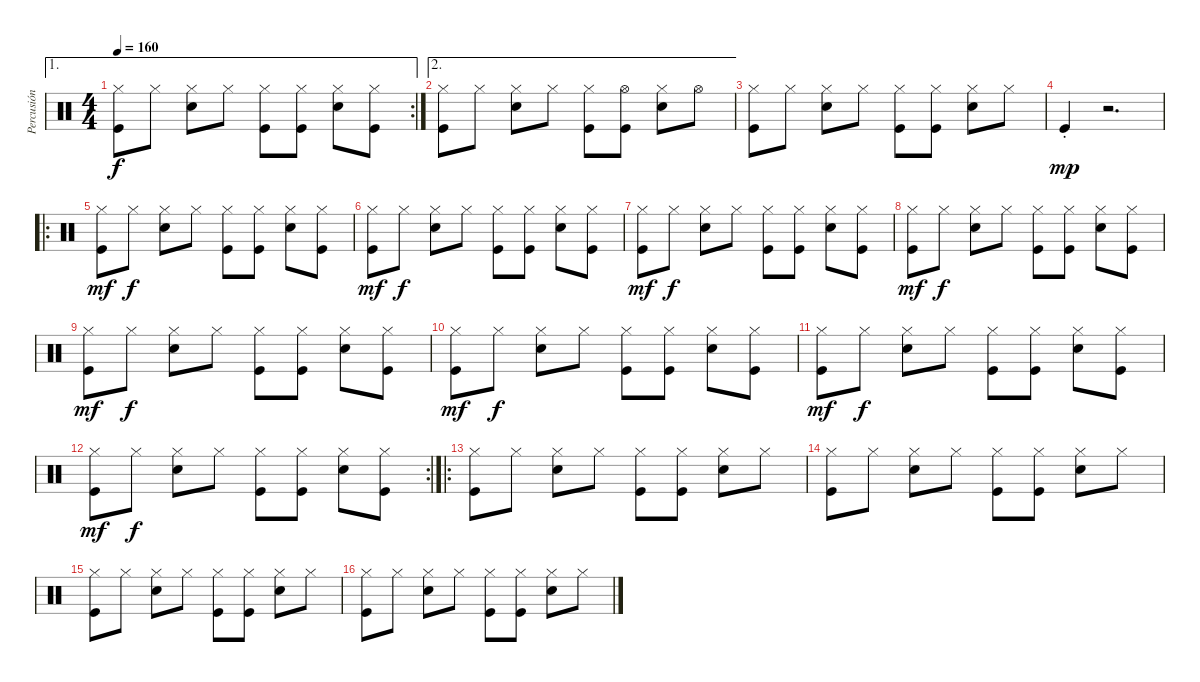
\track ("Percusión" "Percusión") {instrument percussion}
\staff {score}
\articulation defaults
\ae 1
\rc 2
\ts (4 4)
\tempo 160
\clef neutral
\ks c
("Hi-Hat (closed)" "Kick (hit)").8{dy f} "Hi-Hat (closed)".8 ("Hi-Hat (closed)" "Electric Snare (hit)").8 "Hi-Hat (closed)".8 ("Hi-Hat (closed)" "Kick (hit)").8 ("Hi-Hat (closed)" "Kick (hit)").8 ("Hi-Hat (closed)" "Electric Snare (hit)").8 ("Hi-Hat (closed)" "Kick (hit)").8 |
\ae 2
("Hi-Hat (closed)" "Kick (hit)").8 "Hi-Hat (closed)".8 ("Hi-Hat (closed)" "Electric Snare (hit)").8 "Hi-Hat (closed)".8 ("Hi-Hat (closed)" "Kick (hit)").8 ("Hi-Hat (open)" "Kick (hit)").8 ("Hi-Hat (closed)" "Electric Snare (hit)").8 "Hi-Hat (open)".8 |
("Hi-Hat (closed)" "Kick (hit)").8 "Hi-Hat (closed)".8 ("Hi-Hat (closed)" "Electric Snare (hit)").8 "Hi-Hat (closed)".8 ("Hi-Hat (closed)" "Kick (hit)").8 ("Hi-Hat (closed)" "Kick (hit)").8 ("Hi-Hat (closed)" "Electric Snare (hit)").8 "Hi-Hat (closed)".8 |
"Kick (hit)"{st}.4{dy mp} r.2{d} |
\ro
("Hi-Hat (closed)" "Kick (hit)").8{dy mf} "Hi-Hat (closed)".8{dy f} ("Hi-Hat (closed)" "Electric Snare (hit)").8 "Hi-Hat (closed)".8 ("Hi-Hat (closed)" "Kick (hit)").8 ("Hi-Hat (closed)" "Kick (hit)").8 ("Hi-Hat (closed)" "Electric Snare (hit)").8 ("Hi-Hat (closed)" "Kick (hit)").8 |
("Hi-Hat (closed)" "Kick (hit)").8{dy mf} "Hi-Hat (closed)".8{dy f} ("Hi-Hat (closed)" "Electric Snare (hit)").8 "Hi-Hat (closed)".8 ("Hi-Hat (closed)" "Kick (hit)").8 ("Hi-Hat (closed)" "Kick (hit)").8 ("Hi-Hat (closed)" "Electric Snare (hit)").8 ("Hi-Hat (closed)" "Kick (hit)").8 |
("Hi-Hat (closed)" "Kick (hit)").8{dy mf} "Hi-Hat (closed)".8{dy f} ("Hi-Hat (closed)" "Electric Snare (hit)").8 "Hi-Hat (closed)".8 ("Hi-Hat (closed)" "Kick (hit)").8 ("Hi-Hat (closed)" "Kick (hit)").8 ("Hi-Hat (closed)" "Electric Snare (hit)").8 ("Hi-Hat (closed)" "Kick (hit)").8 |
("Hi-Hat (closed)" "Kick (hit)").8{dy mf} "Hi-Hat (closed)".8{dy f} ("Hi-Hat (closed)" "Electric Snare (hit)").8 "Hi-Hat (closed)".8 ("Hi-Hat (closed)" "Kick (hit)").8 ("Hi-Hat (closed)" "Kick (hit)").8 ("Hi-Hat (closed)" "Electric Snare (hit)").8 ("Hi-Hat (closed)" "Kick (hit)").8 |
("Hi-Hat (closed)" "Kick (hit)").8{dy mf} "Hi-Hat (closed)".8{dy f} ("Hi-Hat (closed)" "Electric Snare (hit)").8 "Hi-Hat (closed)".8 ("Hi-Hat (closed)" "Kick (hit)").8 ("Hi-Hat (closed)" "Kick (hit)").8 ("Hi-Hat (closed)" "Electric Snare (hit)").8 ("Hi-Hat (closed)" "Kick (hit)").8 |
("Hi-Hat (closed)" "Kick (hit)").8{dy mf} "Hi-Hat (closed)".8{dy f} ("Hi-Hat (closed)" "Electric Snare (hit)").8 "Hi-Hat (closed)".8 ("Hi-Hat (closed)" "Kick (hit)").8 ("Hi-Hat (closed)" "Kick (hit)").8 ("Hi-Hat (closed)" "Electric Snare (hit)").8 ("Hi-Hat (closed)" "Kick (hit)").8 |
("Hi-Hat (closed)" "Kick (hit)").8{dy mf} "Hi-Hat (closed)".8{dy f} ("Hi-Hat (closed)" "Electric Snare (hit)").8 "Hi-Hat (closed)".8 ("Hi-Hat (closed)" "Kick (hit)").8 ("Hi-Hat (closed)" "Kick (hit)").8 ("Hi-Hat (closed)" "Electric Snare (hit)").8 ("Hi-Hat (closed)" "Kick (hit)").8 |
\rc 2
("Hi-Hat (closed)" "Kick (hit)").8{dy mf} "Hi-Hat (closed)".8{dy f} ("Hi-Hat (closed)" "Electric Snare (hit)").8 "Hi-Hat (closed)".8 ("Hi-Hat (closed)" "Kick (hit)").8 ("Hi-Hat (closed)" "Kick (hit)").8 ("Hi-Hat (closed)" "Electric Snare (hit)").8 ("Hi-Hat (closed)" "Kick (hit)").8 |
\ro
("Hi-Hat (closed)" "Kick (hit)").8 "Hi-Hat (closed)".8 ("Hi-Hat (closed)" "Electric Snare (hit)").8 "Hi-Hat (closed)".8 ("Hi-Hat (closed)" "Kick (hit)").8 ("Hi-Hat (closed)" "Kick (hit)").8 ("Hi-Hat (closed)" "Electric Snare (hit)").8 "Hi-Hat (closed)".8 |
("Hi-Hat (closed)" "Kick (hit)").8 "Hi-Hat (closed)".8 ("Hi-Hat (closed)" "Electric Snare (hit)").8 "Hi-Hat (closed)".8 ("Hi-Hat (closed)" "Kick (hit)").8 ("Hi-Hat (closed)" "Kick (hit)").8 ("Hi-Hat (closed)" "Electric Snare (hit)").8 "Hi-Hat (closed)".8 |
("Hi-Hat (closed)" "Kick (hit)").8 "Hi-Hat (closed)".8 ("Hi-Hat (closed)" "Electric Snare (hit)").8 "Hi-Hat (closed)".8 ("Hi-Hat (closed)" "Kick (hit)").8 ("Hi-Hat (closed)" "Kick (hit)").8 ("Hi-Hat (closed)" "Electric Snare (hit)").8 "Hi-Hat (closed)".8 |
("Hi-Hat (closed)" "Kick (hit)").8 "Hi-Hat (closed)".8 ("Hi-Hat (closed)" "Electric Snare (hit)").8 "Hi-Hat (closed)".8 ("Hi-Hat (closed)" "Kick (hit)").8 ("Hi-Hat (closed)" "Kick (hit)").8 ("Hi-Hat (closed)" "Electric Snare (hit)").8 "Hi-Hat (closed)".8
